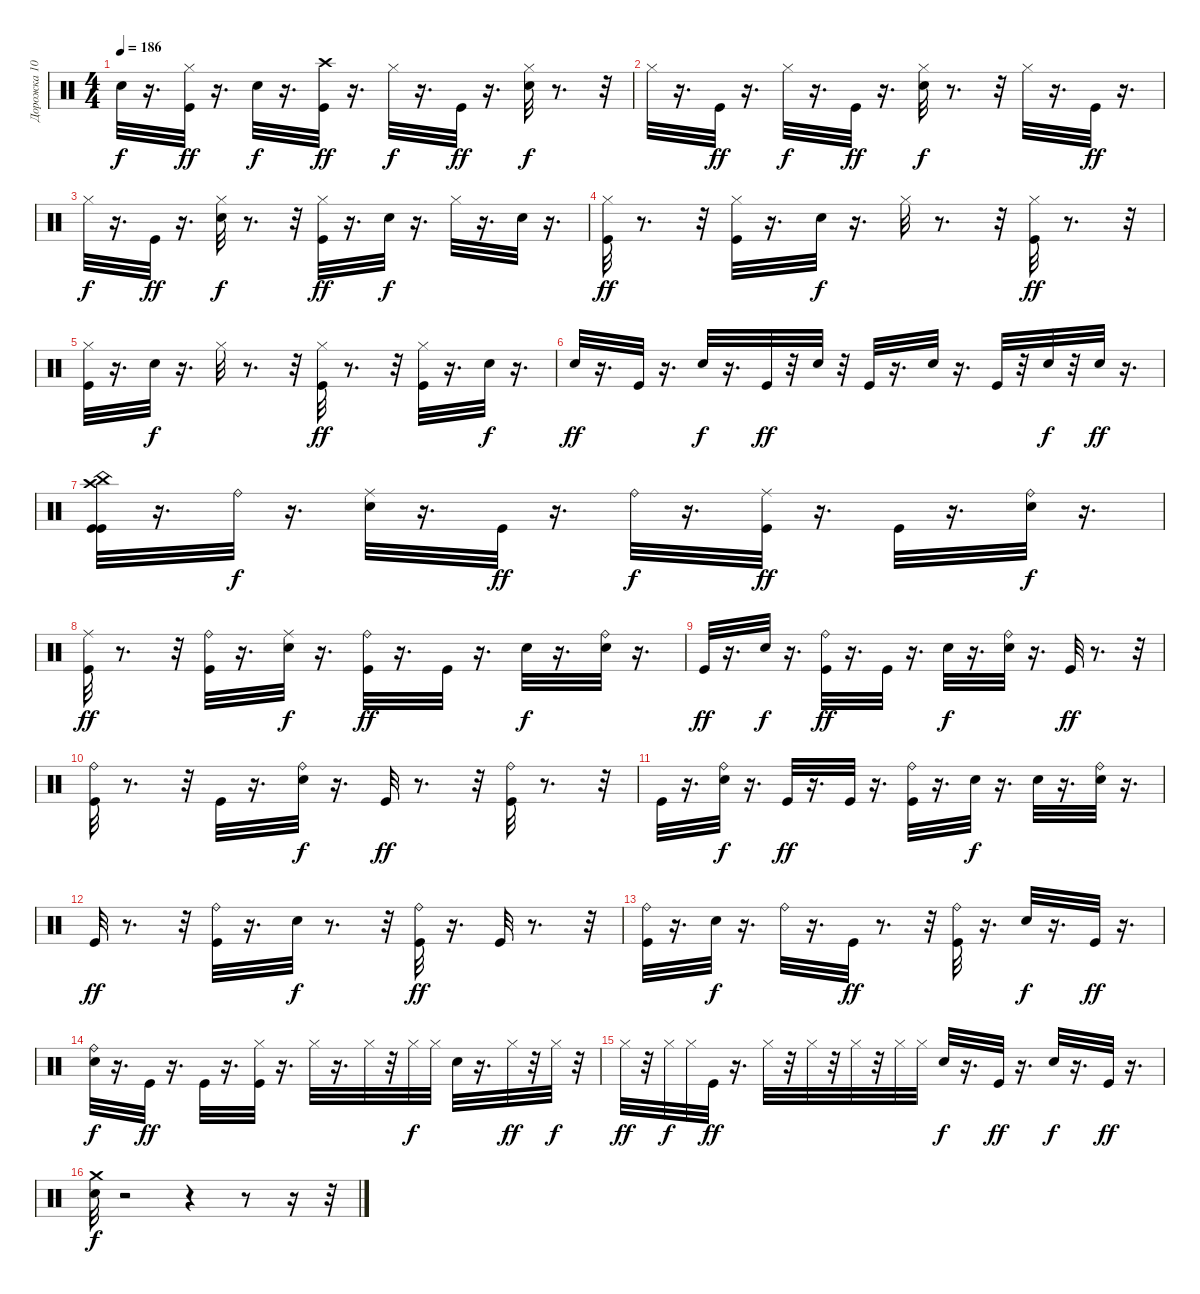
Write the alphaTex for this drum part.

\track ("Дорожка 10" "Дорожка 10") {instrument percussion}
\staff {score}
\articulation defaults
\ts (4 4)
\tempo 186
\clef neutral
\ks c "Electric Snare (hit)".32{dy f}
r.16{d} ("Hi-Hat (closed)" "Kick (hit)").32{dy ff} r.16{d} "Electric Snare (hit)".32{dy f} r.16{d} ("Kick (hit)" "Crash high (hit)").32{dy ff} r.16{d} "Hi-Hat (closed)".32{dy f} r.16{d} "Kick (hit)".32{dy ff} r.16{d} ("Hi-Hat (closed)" "Electric Snare (hit)").32{dy f} r.8{d} r.32 |
"Hi-Hat (closed)".32 r.16{d} "Kick (hit)".32{dy ff} r.16{d} "Hi-Hat (closed)".32{dy f} r.16{d} "Kick (hit)".32{dy ff} r.16{d} ("Electric Snare (hit)" "Hi-Hat (closed)").32{dy f} r.8{d} r.32 "Hi-Hat (closed)".32 r.16{d} "Kick (hit)".32{dy ff} r.16{d} |
"Hi-Hat (closed)".32{dy f} r.16{d} "Kick (hit)".32{dy ff} r.16{d} ("Electric Snare (hit)" "Hi-Hat (closed)").32{dy f} r.8{d} r.32 ("Hi-Hat (closed)" "Kick (hit)").32{dy ff} r.16{d} "Electric Snare (hit)".32{dy f} r.16{d} "Hi-Hat (closed)".32 r.16{d} "Electric Snare (hit)".32 r.16{d} |
("Kick (hit)" "Hi-Hat (closed)").32{dy ff} r.8{d} r.32 ("Hi-Hat (closed)" "Kick (hit)").32 r.16{d} "Electric Snare (hit)".32{dy f} r.16{d} "Hi-Hat (closed)".32 r.8{d} r.32 ("Kick (hit)" "Hi-Hat (closed)").32{dy ff} r.8{d} r.32 |
("Kick (hit)" "Hi-Hat (closed)").32 r.16{d} "Electric Snare (hit)".32{dy f} r.16{d} "Hi-Hat (closed)".32 r.8{d} r.32 ("Hi-Hat (closed)" "Kick (hit)").32{dy ff} r.8{d} r.32 ("Hi-Hat (closed)" "Kick (hit)").32 r.16{d} "Electric Snare (hit)".32{dy f} r.16{d} |
"Electric Snare (hit)".32{dy ff} r.16{d} "Kick (hit)".32 r.16{d} "Electric Snare (hit)".32{dy f} r.16{d} "Kick (hit)".32{dy ff} r.32 "Electric Snare (hit)".32 r.32 "Kick (hit)".32 r.16{d} "Electric Snare (hit)".32 r.16{d} "Kick (hit)".32 r.32 "Electric Snare (hit)".32{dy f} r.32 "Electric Snare (hit)".32{dy ff} r.16{d} |
("China (hit)" "Kick (hit)" "Crash high (hit)" "Kick (hit)").32 r.16{d} "Ride (bell)".32{dy f} r.16{d} ("Electric Snare (hit)" "Ride (middle)").32 r.16{d} "Kick (hit)".32{dy ff} r.16{d} "Ride (bell)".32{dy f} r.16{d} ("Kick (hit)" "Ride (middle)").32{dy ff} r.16{d} "Kick (hit)".32 r.16{d} ("Ride (bell)" "Electric Snare (hit)").32{dy f} r.16{d} |
("Kick (hit)" "Ride (middle)").32{dy ff} r.8{d} r.32 ("Kick (hit)" "Ride (bell)").32 r.16{d} ("Ride (middle)" "Electric Snare (hit)").32{dy f} r.16{d} ("Ride (bell)" "Kick (hit)").32{dy ff} r.16{d} "Kick (hit)".32 r.16{d} "Electric Snare (hit)".32{dy f} r.16{d} ("Ride (bell)" "Electric Snare (hit)").32 r.16{d} |
"Kick (hit)".32{dy ff} r.16{d} "Electric Snare (hit)".32{dy f} r.16{d} ("Kick (hit)" "Ride (bell)").32{dy ff} r.16{d} "Kick (hit)".32 r.16{d} "Electric Snare (hit)".32{dy f} r.16{d} ("Electric Snare (hit)" "Ride (bell)").32 r.16{d} "Kick (hit)".32{dy ff} r.8{d} r.32 |
("Ride (bell)" "Kick (hit)").32 r.8{d} r.32 "Kick (hit)".32 r.16{d} ("Electric Snare (hit)" "Ride (bell)").32{dy f} r.16{d} "Kick (hit)".32{dy ff} r.8{d} r.32 ("Ride (bell)" "Kick (hit)").32 r.8{d} r.32 |
"Kick (hit)".32 r.16{d} ("Electric Snare (hit)" "Ride (bell)").32{dy f} r.16{d} "Kick (hit)".32{dy ff} r.16{d} "Kick (hit)".32 r.16{d} ("Kick (hit)" "Ride (bell)").32 r.16{d} "Electric Snare (hit)".32{dy f} r.16{d} "Electric Snare (hit)".32 r.16{d} ("Electric Snare (hit)" "Ride (bell)").32 r.16{d} |
"Kick (hit)".32{dy ff} r.8{d} r.32 ("Kick (hit)" "Ride (bell)").32 r.16{d} "Electric Snare (hit)".32{dy f} r.8{d} r.32 ("Ride (bell)" "Kick (hit)").32{dy ff} r.16{d} "Kick (hit)".32 r.8{d} r.32 |
("Ride (bell)" "Kick (hit)").32 r.16{d} "Electric Snare (hit)".32{dy f} r.16{d} "Ride (bell)".32 r.16{d} "Kick (hit)".32{dy ff} r.8{d} r.32 ("Kick (hit)" "Ride (bell)").32 r.16{d} "Electric Snare (hit)".32{dy f} r.16{d} "Kick (hit)".32{dy ff} r.16{d} |
("Ride (bell)" "Electric Snare (hit)").32{dy f} r.16{d} "Kick (hit)".32{dy ff} r.16{d} "Kick (hit)".32 r.16{d} ("Hi-Hat (closed)" "Kick (hit)").32 r.16{d} "Hi-Hat (closed)".32 r.16{d} "Hi-Hat (closed)".32 r.32 "Hi-Hat (closed)".32{dy f} "Hi-Hat (closed)".32 "Electric Snare (hit)".32 r.16{d} "Hi-Hat (closed)".32{dy ff} r.32 "Hi-Hat (closed)".32{dy f} r.32 |
"Hi-Hat (closed)".32{dy ff} r.32 "Hi-Hat (closed)".32{dy f} "Hi-Hat (closed)".32 "Kick (hit)".32{dy ff} r.16{d} "Hi-Hat (closed)".32 r.32 "Hi-Hat (closed)".32 r.32 "Hi-Hat (closed)".32 r.32 "Hi-Hat (closed)".32 "Hi-Hat (closed)".32 "Electric Snare (hit)".32{dy f} r.16{d} "Kick (hit)".32{dy ff} r.16{d} "Electric Snare (hit)".32{dy f} r.16{d} "Kick (hit)".32{dy ff} r.16{d} |
("Crash medium (hit)" "Electric Snare (hit)").32{dy f} r.2 r.4 r.8 r.16 r.32
